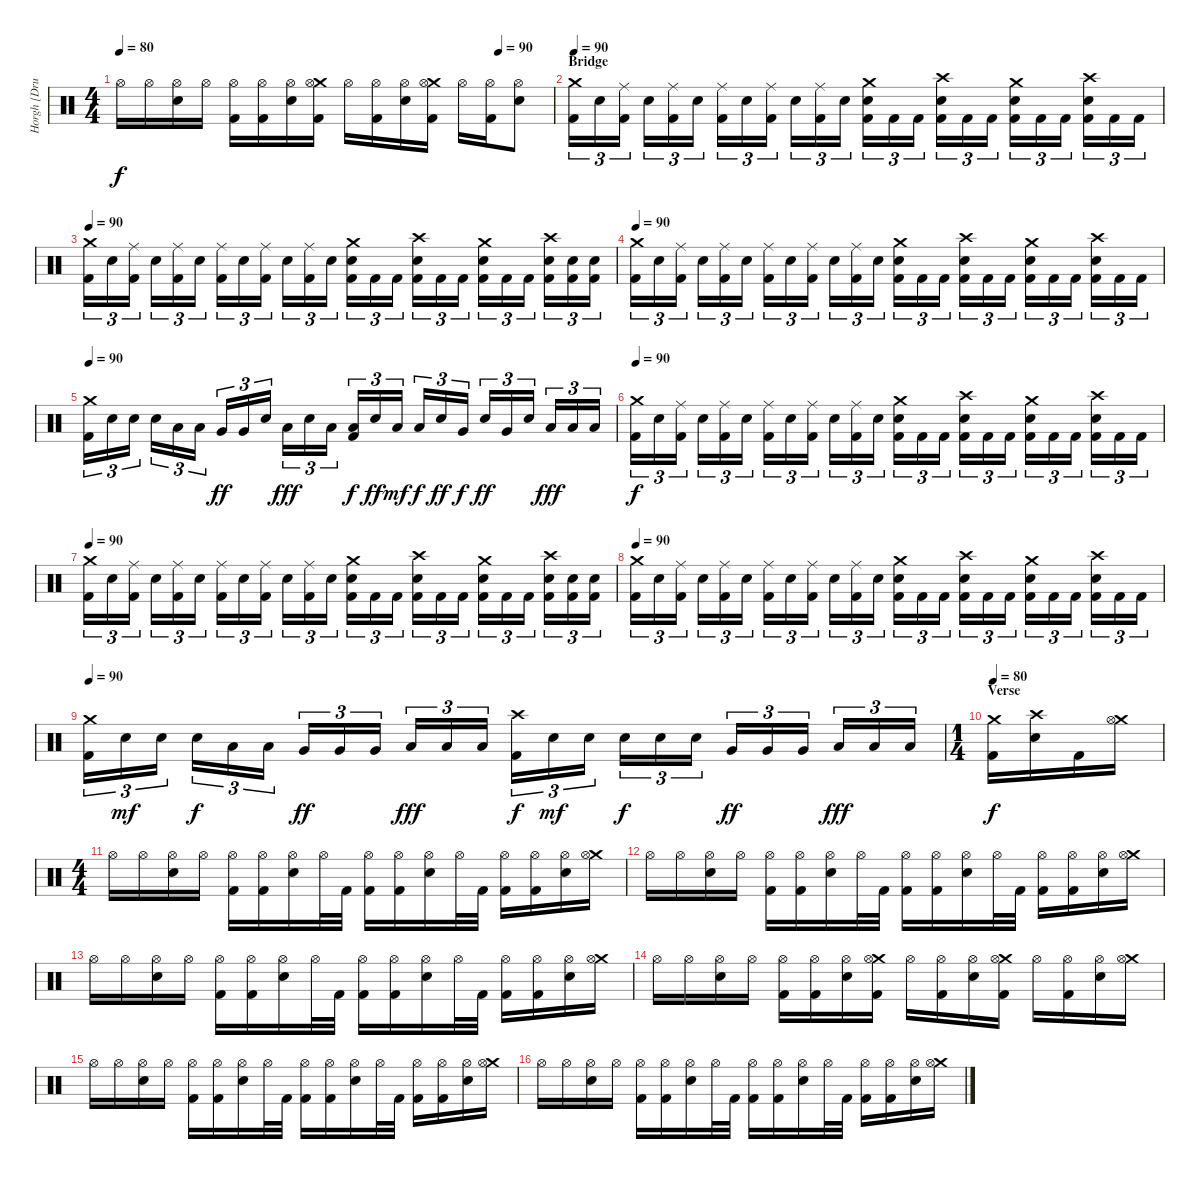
\track ("Horgh [Drums]" "Horgh [Dru") {instrument percussion}
\staff {score}
\articulation defaults
\ts (4 4)
\tempo 80
\tempo (90 0.875)
\clef neutral
\ks c "Hi-Hat (open)".16{dy f} "Hi-Hat (open)".16
("Hi-Hat (open)" "Snare (hit) 2").16 "Hi-Hat (open)".16 ("Hi-Hat (open)" "Kick (hit) 2").16 ("Hi-Hat (open)" "Kick (hit) 2").16 ("Hi-Hat (open)" "Snare (hit) 2").16 ("Crash medium (hit)" "Hi-Hat (open)" "Kick (hit) 2").16 "Hi-Hat (open)".16 ("Hi-Hat (open)" "Kick (hit) 2").16 ("Hi-Hat (open)" "Snare (hit) 2").16 ("Crash medium (hit)" "Hi-Hat (open)" "Kick (hit) 2").16 "Hi-Hat (open)".16 ("Hi-Hat (open)" "Kick (hit) 2").16 ("Hi-Hat (open)" "Snare (hit) 2").8 |
\section ("" "Bridge")
\tempo 90
("Crash medium (hit)" "Kick (hit) 2").16{tu (3 2)} "Snare (hit) 2".16{tu (3 2)} ("Ride (middle)" "Kick (hit) 2").16{tu (3 2)} "Snare (hit) 2".16{tu (3 2)} ("Ride (middle)" "Kick (hit) 2").16{tu (3 2)} "Snare (hit) 2".16{tu (3 2)} ("Ride (middle)" "Kick (hit) 2").16{tu (3 2)} "Snare (hit) 2".16{tu (3 2)} ("Ride (middle)" "Kick (hit) 2").16{tu (3 2)} "Snare (hit) 2".16{tu (3 2)} ("Ride (middle)" "Kick (hit) 2").16{tu (3 2)} "Snare (hit) 2".16{tu (3 2)} ("Crash medium (hit)" "Snare (hit) 2" "Kick (hit) 2").16{tu (3 2)} "Kick (hit) 2".16{tu (3 2)} "Kick (hit) 2".16{tu (3 2)} ("Crash high (hit)" "Snare (hit) 2" "Kick (hit) 2").16{tu (3 2)} "Kick (hit) 2".16{tu (3 2)} "Kick (hit) 2".16{tu (3 2)} ("Crash medium (hit)" "Snare (hit) 2" "Kick (hit) 2").16{tu (3 2)} "Kick (hit) 2".16{tu (3 2)} "Kick (hit) 2".16{tu (3 2)} ("Crash high (hit)" "Snare (hit) 2" "Kick (hit) 2").16{tu (3 2)} "Kick (hit) 2".16{tu (3 2)} "Kick (hit) 2".16{tu (3 2)} |
\tempo 90
("Crash medium (hit)" "Kick (hit) 2").16{tu (3 2)} "Snare (hit) 2".16{tu (3 2)} ("Ride (middle)" "Kick (hit) 2").16{tu (3 2)} "Snare (hit) 2".16{tu (3 2)} ("Ride (middle)" "Kick (hit) 2").16{tu (3 2)} "Snare (hit) 2".16{tu (3 2)} ("Ride (middle)" "Kick (hit) 2").16{tu (3 2)} "Snare (hit) 2".16{tu (3 2)} ("Ride (middle)" "Kick (hit) 2").16{tu (3 2)} "Snare (hit) 2".16{tu (3 2)} ("Ride (middle)" "Kick (hit) 2").16{tu (3 2)} "Snare (hit) 2".16{tu (3 2)} ("Crash medium (hit)" "Snare (hit) 2" "Kick (hit) 2").16{tu (3 2)} "Kick (hit) 2".16{tu (3 2)} "Kick (hit) 2".16{tu (3 2)} ("Crash high (hit)" "Snare (hit) 2" "Kick (hit) 2").16{tu (3 2)} "Kick (hit) 2".16{tu (3 2)} "Kick (hit) 2".16{tu (3 2)} ("Crash medium (hit)" "Snare (hit) 2" "Kick (hit) 2").16{tu (3 2)} "Kick (hit) 2".16{tu (3 2)} "Kick (hit) 2".16{tu (3 2)} ("Crash high (hit)" "Snare (hit) 2" "Kick (hit) 2").16{tu (3 2)} ("Snare (hit) 2" "Kick (hit) 2").16{tu (3 2)} ("Snare (hit) 2" "Kick (hit) 2").16{tu (3 2)} |
\tempo 90
("Crash medium (hit)" "Kick (hit) 2").16{tu (3 2)} "Snare (hit) 2".16{tu (3 2)} ("Ride (middle)" "Kick (hit) 2").16{tu (3 2)} "Snare (hit) 2".16{tu (3 2)} ("Ride (middle)" "Kick (hit) 2").16{tu (3 2)} "Snare (hit) 2".16{tu (3 2)} ("Ride (middle)" "Kick (hit) 2").16{tu (3 2)} "Snare (hit) 2".16{tu (3 2)} ("Ride (middle)" "Kick (hit) 2").16{tu (3 2)} "Snare (hit) 2".16{tu (3 2)} ("Ride (middle)" "Kick (hit) 2").16{tu (3 2)} "Snare (hit) 2".16{tu (3 2)} ("Crash medium (hit)" "Snare (hit) 2" "Kick (hit) 2").16{tu (3 2)} "Kick (hit) 2".16{tu (3 2)} "Kick (hit) 2".16{tu (3 2)} ("Crash high (hit)" "Snare (hit) 2" "Kick (hit) 2").16{tu (3 2)} "Kick (hit) 2".16{tu (3 2)} "Kick (hit) 2".16{tu (3 2)} ("Crash medium (hit)" "Snare (hit) 2" "Kick (hit) 2").16{tu (3 2)} "Kick (hit) 2".16{tu (3 2)} "Kick (hit) 2".16{tu (3 2)} ("Crash high (hit)" "Snare (hit) 2" "Kick (hit) 2").16{tu (3 2)} "Kick (hit) 2".16{tu (3 2)} "Kick (hit) 2".16{tu (3 2)} |
\tempo 90
("Crash medium (hit)" "Kick (hit) 2").16{tu (3 2)} "Snare (hit) 2".16{tu (3 2)} "Snare (hit) 2".16{tu (3 2)} "Snare (hit) 2".16{tu (3 2)} "Low Tom (hit)".16{tu (3 2)} "Low Tom (hit)".16{tu (3 2)} "Very Low Tom (hit)".16{tu (3 2) dy ff} "Very Low Tom (hit)".16{tu (3 2)} "Snare (hit) 2".16{tu (3 2)} "Low Floor Tom (hit)".16{tu (3 2) dy fff} "Snare (hit) 2".16{tu (3 2)} "Low Floor Tom (hit)".16{tu (3 2)} ("Low Floor Tom (hit)" "Kick (hit) 2").16{tu (3 2) dy f} "Snare (hit) 2".16{tu (3 2) dy ff} "Low Tom (hit)".16{tu (3 2) dy mf} "Low Tom (hit)".16{tu (3 2) dy f} "Snare (hit) 2".16{tu (3 2) dy ff} "Very Low Tom (hit)".16{tu (3 2) dy f} "Snare (hit) 2".16{tu (3 2) dy ff} "Very Low Tom (hit)".16{tu (3 2)} "Snare (hit) 2".16{tu (3 2)} "Low Floor Tom (hit)".16{tu (3 2) dy fff} "Low Floor Tom (hit)".16{tu (3 2)} "Low Floor Tom (hit)".16{tu (3 2)} |
\tempo 90
("Crash medium (hit)" "Kick (hit) 2").16{tu (3 2) dy f} "Snare (hit) 2".16{tu (3 2)} ("Ride (middle)" "Kick (hit) 2").16{tu (3 2)} "Snare (hit) 2".16{tu (3 2)} ("Ride (middle)" "Kick (hit) 2").16{tu (3 2)} "Snare (hit) 2".16{tu (3 2)} ("Ride (middle)" "Kick (hit) 2").16{tu (3 2)} "Snare (hit) 2".16{tu (3 2)} ("Ride (middle)" "Kick (hit) 2").16{tu (3 2)} "Snare (hit) 2".16{tu (3 2)} ("Ride (middle)" "Kick (hit) 2").16{tu (3 2)} "Snare (hit) 2".16{tu (3 2)} ("Crash medium (hit)" "Snare (hit) 2" "Kick (hit) 2").16{tu (3 2)} "Kick (hit) 2".16{tu (3 2)} "Kick (hit) 2".16{tu (3 2)} ("Crash high (hit)" "Snare (hit) 2" "Kick (hit) 2").16{tu (3 2)} "Kick (hit) 2".16{tu (3 2)} "Kick (hit) 2".16{tu (3 2)} ("Crash medium (hit)" "Snare (hit) 2" "Kick (hit) 2").16{tu (3 2)} "Kick (hit) 2".16{tu (3 2)} "Kick (hit) 2".16{tu (3 2)} ("Crash high (hit)" "Snare (hit) 2" "Kick (hit) 2").16{tu (3 2)} "Kick (hit) 2".16{tu (3 2)} "Kick (hit) 2".16{tu (3 2)} |
\tempo 90
("Crash medium (hit)" "Kick (hit) 2").16{tu (3 2)} "Snare (hit) 2".16{tu (3 2)} ("Ride (middle)" "Kick (hit) 2").16{tu (3 2)} "Snare (hit) 2".16{tu (3 2)} ("Ride (middle)" "Kick (hit) 2").16{tu (3 2)} "Snare (hit) 2".16{tu (3 2)} ("Ride (middle)" "Kick (hit) 2").16{tu (3 2)} "Snare (hit) 2".16{tu (3 2)} ("Ride (middle)" "Kick (hit) 2").16{tu (3 2)} "Snare (hit) 2".16{tu (3 2)} ("Ride (middle)" "Kick (hit) 2").16{tu (3 2)} "Snare (hit) 2".16{tu (3 2)} ("Crash medium (hit)" "Snare (hit) 2" "Kick (hit) 2").16{tu (3 2)} "Kick (hit) 2".16{tu (3 2)} "Kick (hit) 2".16{tu (3 2)} ("Crash high (hit)" "Snare (hit) 2" "Kick (hit) 2").16{tu (3 2)} "Kick (hit) 2".16{tu (3 2)} "Kick (hit) 2".16{tu (3 2)} ("Crash medium (hit)" "Snare (hit) 2" "Kick (hit) 2").16{tu (3 2)} "Kick (hit) 2".16{tu (3 2)} "Kick (hit) 2".16{tu (3 2)} ("Crash high (hit)" "Snare (hit) 2" "Kick (hit) 2").16{tu (3 2)} ("Snare (hit) 2" "Kick (hit) 2").16{tu (3 2)} ("Snare (hit) 2" "Kick (hit) 2").16{tu (3 2)} |
\tempo 90
("Crash medium (hit)" "Kick (hit) 2").16{tu (3 2)} "Snare (hit) 2".16{tu (3 2)} ("Ride (middle)" "Kick (hit) 2").16{tu (3 2)} "Snare (hit) 2".16{tu (3 2)} ("Ride (middle)" "Kick (hit) 2").16{tu (3 2)} "Snare (hit) 2".16{tu (3 2)} ("Ride (middle)" "Kick (hit) 2").16{tu (3 2)} "Snare (hit) 2".16{tu (3 2)} ("Ride (middle)" "Kick (hit) 2").16{tu (3 2)} "Snare (hit) 2".16{tu (3 2)} ("Ride (middle)" "Kick (hit) 2").16{tu (3 2)} "Snare (hit) 2".16{tu (3 2)} ("Crash medium (hit)" "Snare (hit) 2" "Kick (hit) 2").16{tu (3 2)} "Kick (hit) 2".16{tu (3 2)} "Kick (hit) 2".16{tu (3 2)} ("Crash high (hit)" "Snare (hit) 2" "Kick (hit) 2").16{tu (3 2)} "Kick (hit) 2".16{tu (3 2)} "Kick (hit) 2".16{tu (3 2)} ("Crash medium (hit)" "Snare (hit) 2" "Kick (hit) 2").16{tu (3 2)} "Kick (hit) 2".16{tu (3 2)} "Kick (hit) 2".16{tu (3 2)} ("Crash high (hit)" "Snare (hit) 2" "Kick (hit) 2").16{tu (3 2)} "Kick (hit) 2".16{tu (3 2)} "Kick (hit) 2".16{tu (3 2)} |
\tempo 90
("Crash medium (hit)" "Kick (hit) 2").16{tu (3 2)} "Snare (hit) 2".16{tu (3 2) dy mf} "Snare (hit) 2".16{tu (3 2)} "Snare (hit) 2".16{tu (3 2) dy f} "Low Tom (hit)".16{tu (3 2)} "Low Tom (hit)".16{tu (3 2)} "Very Low Tom (hit)".16{tu (3 2) dy ff} "Very Low Tom (hit)".16{tu (3 2)} "Very Low Tom (hit)".16{tu (3 2)} "Low Floor Tom (hit)".16{tu (3 2) dy fff} "Low Floor Tom (hit)".16{tu (3 2)} "Low Floor Tom (hit)".16{tu (3 2)} ("Crash high (hit)" "Kick (hit) 2").16{tu (3 2) dy f} "Snare (hit) 2".16{tu (3 2) dy mf} "Snare (hit) 2".16{tu (3 2)} "Snare (hit) 2".16{tu (3 2) dy f} "Snare (hit) 2".16{tu (3 2)} "Snare (hit) 2".16{tu (3 2)} "Very Low Tom (hit)".16{tu (3 2) dy ff} "Very Low Tom (hit)".16{tu (3 2)} "Very Low Tom (hit)".16{tu (3 2)} "Low Floor Tom (hit)".16{tu (3 2) dy fff} "Low Floor Tom (hit)".16{tu (3 2)} "Low Floor Tom (hit)".16{tu (3 2)} |
\ts (1 4)
\section ("" "Verse")
\tempo 80
("Crash medium (hit)" "Kick (hit) 2").16{dy f} ("Crash high (hit)" "Snare (hit) 2").16 "Kick (hit) 2".16 ("Crash medium (hit)" "Hi-Hat (open)").16 |
\ts (4 4)
"Hi-Hat (open)".16 "Hi-Hat (open)".16 ("Hi-Hat (open)" "Snare (hit) 2").16 "Hi-Hat (open)".16 ("Hi-Hat (open)" "Kick (hit) 2").16 ("Hi-Hat (open)" "Kick (hit) 2").16 ("Hi-Hat (open)" "Snare (hit) 2").16 "Hi-Hat (open)".32 "Kick (hit) 2".32 ("Hi-Hat (open)" "Kick (hit) 2").16 ("Hi-Hat (open)" "Kick (hit) 2").16 ("Hi-Hat (open)" "Snare (hit) 2").16 "Hi-Hat (open)".32 "Kick (hit) 2".32 ("Hi-Hat (open)" "Kick (hit) 2").16 ("Hi-Hat (open)" "Kick (hit) 2").16 ("Hi-Hat (open)" "Snare (hit) 2").16 ("Crash medium (hit)" "Hi-Hat (open)").16 |
"Hi-Hat (open)".16 "Hi-Hat (open)".16 ("Hi-Hat (open)" "Snare (hit) 2").16 "Hi-Hat (open)".16 ("Hi-Hat (open)" "Kick (hit) 2").16 ("Hi-Hat (open)" "Kick (hit) 2").16 ("Hi-Hat (open)" "Snare (hit) 2").16 "Hi-Hat (open)".32 "Kick (hit) 2".32 ("Hi-Hat (open)" "Kick (hit) 2").16 ("Hi-Hat (open)" "Kick (hit) 2").16 ("Hi-Hat (open)" "Snare (hit) 2").16 "Hi-Hat (open)".32 "Kick (hit) 2".32 ("Hi-Hat (open)" "Kick (hit) 2").16 ("Hi-Hat (open)" "Kick (hit) 2").16 ("Hi-Hat (open)" "Snare (hit) 2").16 ("Crash medium (hit)" "Hi-Hat (open)").16 |
"Hi-Hat (open)".16 "Hi-Hat (open)".16 ("Hi-Hat (open)" "Snare (hit) 2").16 "Hi-Hat (open)".16 ("Hi-Hat (open)" "Kick (hit) 2").16 ("Hi-Hat (open)" "Kick (hit) 2").16 ("Hi-Hat (open)" "Snare (hit) 2").16 "Hi-Hat (open)".32 "Kick (hit) 2".32 ("Hi-Hat (open)" "Kick (hit) 2").16 ("Hi-Hat (open)" "Kick (hit) 2").16 ("Hi-Hat (open)" "Snare (hit) 2").16 "Hi-Hat (open)".32 "Kick (hit) 2".32 ("Hi-Hat (open)" "Kick (hit) 2").16 ("Hi-Hat (open)" "Kick (hit) 2").16 ("Hi-Hat (open)" "Snare (hit) 2").16 ("Crash medium (hit)" "Hi-Hat (open)").16 |
"Hi-Hat (open)".16 "Hi-Hat (open)".16 ("Hi-Hat (open)" "Snare (hit) 2").16 "Hi-Hat (open)".16 ("Hi-Hat (open)" "Kick (hit) 2").16 ("Hi-Hat (open)" "Kick (hit) 2").16 ("Hi-Hat (open)" "Snare (hit) 2").16 ("Crash medium (hit)" "Hi-Hat (open)" "Kick (hit) 2").16 "Hi-Hat (open)".16 ("Hi-Hat (open)" "Kick (hit) 2").16 ("Hi-Hat (open)" "Snare (hit) 2").16 ("Crash medium (hit)" "Hi-Hat (open)" "Kick (hit) 2").16 "Hi-Hat (open)".16 ("Hi-Hat (open)" "Kick (hit) 2").16 ("Hi-Hat (open)" "Snare (hit) 2").16 ("Crash medium (hit)" "Hi-Hat (open)").16 |
"Hi-Hat (open)".16 "Hi-Hat (open)".16 ("Hi-Hat (open)" "Snare (hit) 2").16 "Hi-Hat (open)".16 ("Hi-Hat (open)" "Kick (hit) 2").16 ("Hi-Hat (open)" "Kick (hit) 2").16 ("Hi-Hat (open)" "Snare (hit) 2").16 "Hi-Hat (open)".32 "Kick (hit) 2".32 ("Hi-Hat (open)" "Kick (hit) 2").16 ("Hi-Hat (open)" "Kick (hit) 2").16 ("Hi-Hat (open)" "Snare (hit) 2").16 "Hi-Hat (open)".32 "Kick (hit) 2".32 ("Hi-Hat (open)" "Kick (hit) 2").16 ("Hi-Hat (open)" "Kick (hit) 2").16 ("Hi-Hat (open)" "Snare (hit) 2").16 ("Crash medium (hit)" "Hi-Hat (open)").16 |
"Hi-Hat (open)".16 "Hi-Hat (open)".16 ("Hi-Hat (open)" "Snare (hit) 2").16 "Hi-Hat (open)".16 ("Hi-Hat (open)" "Kick (hit) 2").16 ("Hi-Hat (open)" "Kick (hit) 2").16 ("Hi-Hat (open)" "Snare (hit) 2").16 "Hi-Hat (open)".32 "Kick (hit) 2".32 ("Hi-Hat (open)" "Kick (hit) 2").16 ("Hi-Hat (open)" "Kick (hit) 2").16 ("Hi-Hat (open)" "Snare (hit) 2").16 "Hi-Hat (open)".32 "Kick (hit) 2".32 ("Hi-Hat (open)" "Kick (hit) 2").16 ("Hi-Hat (open)" "Kick (hit) 2").16 ("Hi-Hat (open)" "Snare (hit) 2").16 ("Crash medium (hit)" "Hi-Hat (open)").16
